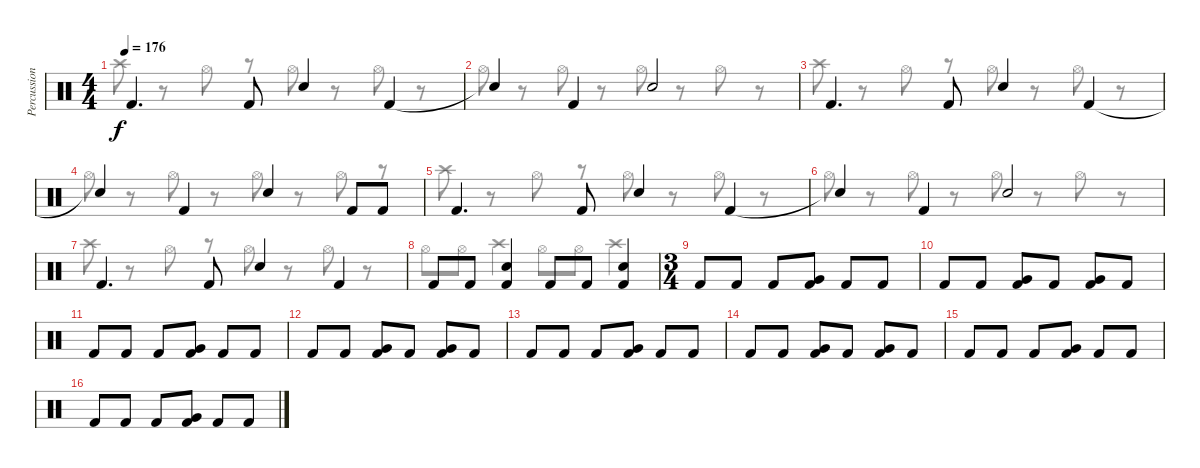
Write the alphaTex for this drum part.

\track ("Percussion" "Percussion") {instrument percussion}
\staff {score}
\articulation defaults
\voice
\ts (4 4)
\tempo 176
\clef neutral
\ks c "Kick (hit) 2".4{d dy f} "Kick (hit) 2".8 "Electric Snare (hit)".4 "Kick (hit) 2".4
|
"Snare (hit)"{t}.4 "Kick (hit) 2".4 "Electric Snare (hit)".2 |
"Kick (hit) 2".4{d} "Kick (hit) 2".8 "Electric Snare (hit)".4 "Kick (hit) 2".4 |
"Snare (hit)"{t}.4 "Kick (hit) 2".4 "Electric Snare (hit)".4 "Kick (hit) 2".8 "Kick (hit) 2".8 |
"Kick (hit) 2".4{d} "Kick (hit) 2".8 "Electric Snare (hit)".4 "Kick (hit) 2".4 |
"Snare (hit)"{t}.4 "Kick (hit) 2".4 "Electric Snare (hit)".2 |
"Kick (hit) 2".4{d} "Kick (hit) 2".8 "Electric Snare (hit)".4 "Kick (hit) 2".4 |
"Kick (hit) 2".8 "Kick (hit) 2".8 ("Electric Snare (hit)" "Kick (hit) 2").4 "Kick (hit) 2".8 "Kick (hit) 2".8 ("Electric Snare (hit)" "Kick (hit) 2").4 |
\ts (3 4)
"Kick (hit) 2".8 "Kick (hit) 2".8 "Kick (hit) 2".8 ("Very Low Tom (hit)" "Kick (hit) 2").8 "Kick (hit) 2".8 "Kick (hit) 2".8 |
"Kick (hit) 2".8 "Kick (hit) 2".8 ("Very Low Tom (hit)" "Kick (hit) 2").8 "Kick (hit) 2".8 ("Very Low Tom (hit)" "Kick (hit) 2").8 "Kick (hit) 2".8 |
"Kick (hit) 2".8 "Kick (hit) 2".8 "Kick (hit) 2".8 ("Very Low Tom (hit)" "Kick (hit) 2").8 "Kick (hit) 2".8 "Kick (hit) 2".8 |
"Kick (hit) 2".8 "Kick (hit) 2".8 ("Very Low Tom (hit)" "Kick (hit) 2").8 "Kick (hit) 2".8 ("Very Low Tom (hit)" "Kick (hit) 2").8 "Kick (hit) 2".8 |
"Kick (hit) 2".8 "Kick (hit) 2".8 "Kick (hit) 2".8 ("Very Low Tom (hit)" "Kick (hit) 2").8 "Kick (hit) 2".8 "Kick (hit) 2".8 |
"Kick (hit) 2".8 "Kick (hit) 2".8 ("Very Low Tom (hit)" "Kick (hit) 2").8 "Kick (hit) 2".8 ("Very Low Tom (hit)" "Kick (hit) 2").8 "Kick (hit) 2".8 |
"Kick (hit) 2".8 "Kick (hit) 2".8 "Kick (hit) 2".8 ("Very Low Tom (hit)" "Kick (hit) 2").8 "Kick (hit) 2".8 "Kick (hit) 2".8 |
"Kick (hit) 2".8 "Kick (hit) 2".8 "Kick (hit) 2".8 ("Very Low Tom (hit)" "Kick (hit) 2").8 "Kick (hit) 2".8 "Kick (hit) 2".8
\voice
\clef neutral
\ottava regular
\simile none
\ks c "Crash high (hit)".8{dy f}
r.8 "Hi-Hat (open)".8 r.8 "Hi-Hat (open)".8 r.8 "Hi-Hat (open)".8 r.8 |
"Hi-Hat (open)".8 r.8 "Hi-Hat (open)".8 r.8 "Hi-Hat (open)".8 r.8 "Hi-Hat (open)".8 r.8 |
"Crash high (hit)".8 r.8 "Hi-Hat (open)".8 r.8 "Hi-Hat (open)".8 r.8 "Hi-Hat (open)".8 r.8 |
"Hi-Hat (open)".8 r.8 "Hi-Hat (open)".8 r.8 "Hi-Hat (open)".8 r.8 "Hi-Hat (open)".8 r.8 |
"Crash high (hit)".8 r.8 "Hi-Hat (open)".8 r.8 "Hi-Hat (open)".8 r.8 "Hi-Hat (open)".8 r.8 |
"Hi-Hat (open)".8 r.8 "Hi-Hat (open)".8 r.8 "Hi-Hat (open)".8 r.8 "Hi-Hat (open)".8 r.8 |
"Crash high (hit)".8 r.8 "Hi-Hat (open)".8 r.8 "Hi-Hat (open)".8 r.8 "Hi-Hat (open)".8 r.8 |
"Hi-Hat (open)".8 "Hi-Hat (open)".8 "Crash high (hit)".4 "Hi-Hat (open)".8 "Hi-Hat (open)".8 "Crash high (hit)".4 |
|
|
|
|
|
|
|
